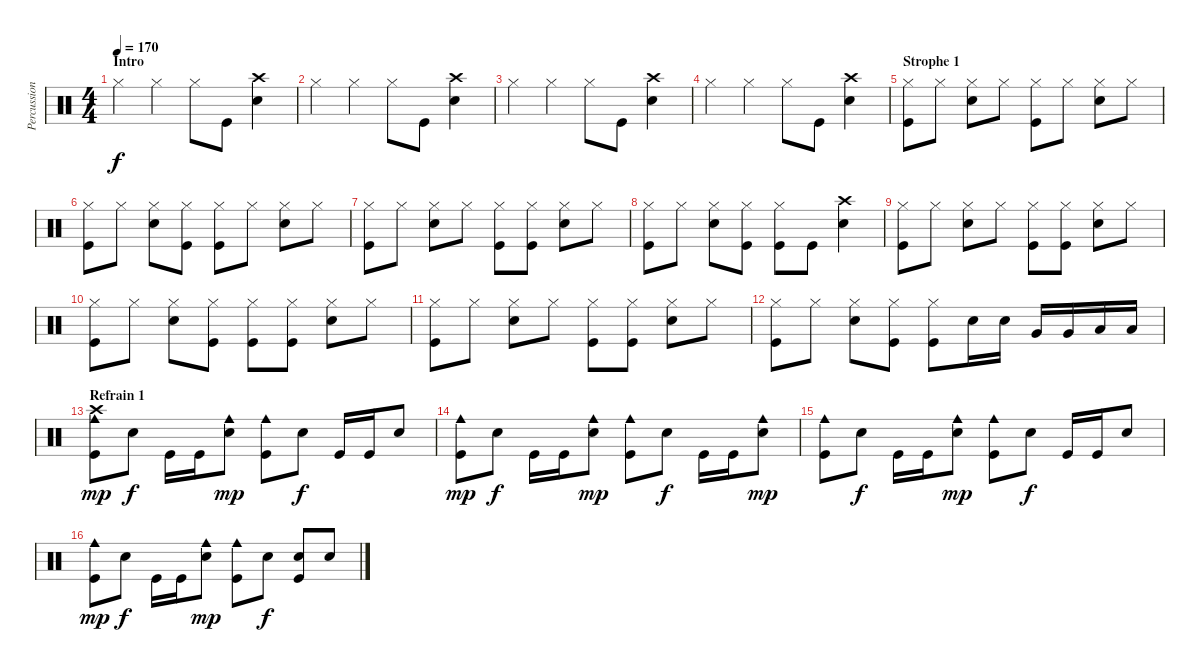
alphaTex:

\track ("Percussion" "Percussion") {instrument percussion}
\staff {score}
\articulation defaults
\ts (4 4)
\section ("" "Intro")
\tempo 170
\clef neutral
\ks c "Hi-Hat (closed)".4{dy f} "Hi-Hat (closed)".4 "Hi-Hat (closed)".8 "Kick (hit)".8
("Crash high (hit)" "Electric Snare (hit)").4 |
"Hi-Hat (closed)".4 "Hi-Hat (closed)".4 "Hi-Hat (closed)".8 "Kick (hit)".8 ("Crash high (hit)" "Electric Snare (hit)").4 |
"Hi-Hat (closed)".4 "Hi-Hat (closed)".4 "Hi-Hat (closed)".8 "Kick (hit)".8 ("Crash high (hit)" "Electric Snare (hit)").4 |
"Hi-Hat (closed)".4 "Hi-Hat (closed)".4 "Hi-Hat (closed)".8 "Kick (hit)".8 ("Crash high (hit)" "Electric Snare (hit)").4 |
\section ("" "Strophe 1")
("Hi-Hat (closed)" "Kick (hit)").8 "Hi-Hat (closed)".8 ("Hi-Hat (closed)" "Electric Snare (hit)").8 "Hi-Hat (closed)".8 ("Hi-Hat (closed)" "Kick (hit)").8 "Hi-Hat (closed)".8 ("Hi-Hat (closed)" "Electric Snare (hit)").8 "Hi-Hat (closed)".8 |
("Hi-Hat (closed)" "Kick (hit)").8 "Hi-Hat (closed)".8 ("Hi-Hat (closed)" "Electric Snare (hit)").8 ("Hi-Hat (closed)" "Kick (hit)").8 ("Hi-Hat (closed)" "Kick (hit)").8 "Hi-Hat (closed)".8 ("Hi-Hat (closed)" "Electric Snare (hit)").8 "Hi-Hat (closed)".8 |
("Hi-Hat (closed)" "Kick (hit)").8 "Hi-Hat (closed)".8 ("Hi-Hat (closed)" "Electric Snare (hit)").8 "Hi-Hat (closed)".8 ("Hi-Hat (closed)" "Kick (hit)").8 ("Hi-Hat (closed)" "Kick (hit)").8 ("Hi-Hat (closed)" "Electric Snare (hit)").8 "Hi-Hat (closed)".8 |
("Hi-Hat (closed)" "Kick (hit)").8 "Hi-Hat (closed)".8 ("Hi-Hat (closed)" "Electric Snare (hit)").8 ("Hi-Hat (closed)" "Kick (hit)").8 ("Hi-Hat (closed)" "Kick (hit)").8 "Kick (hit)".8 ("Crash high (hit)" "Electric Snare (hit)").4 |
("Hi-Hat (closed)" "Kick (hit)").8 "Hi-Hat (closed)".8 ("Hi-Hat (closed)" "Electric Snare (hit)").8 "Hi-Hat (closed)".8 ("Hi-Hat (closed)" "Kick (hit)").8 ("Hi-Hat (closed)" "Kick (hit)").8 ("Hi-Hat (closed)" "Electric Snare (hit)").8 "Hi-Hat (closed)".8 |
("Hi-Hat (closed)" "Kick (hit)").8 "Hi-Hat (closed)".8 ("Hi-Hat (closed)" "Electric Snare (hit)").8 ("Hi-Hat (closed)" "Kick (hit)").8 ("Hi-Hat (closed)" "Kick (hit)").8 ("Hi-Hat (closed)" "Kick (hit)").8 ("Hi-Hat (closed)" "Electric Snare (hit)").8 "Hi-Hat (closed)".8 |
("Hi-Hat (closed)" "Kick (hit)").8 "Hi-Hat (closed)".8 ("Hi-Hat (closed)" "Electric Snare (hit)").8 "Hi-Hat (closed)".8 ("Hi-Hat (closed)" "Kick (hit)").8 ("Hi-Hat (closed)" "Kick (hit)").8 ("Hi-Hat (closed)" "Electric Snare (hit)").8 "Hi-Hat (closed)".8 |
("Hi-Hat (closed)" "Kick (hit)").8 "Hi-Hat (closed)".8 ("Hi-Hat (closed)" "Electric Snare (hit)").8 ("Hi-Hat (closed)" "Kick (hit)").8 ("Hi-Hat (closed)" "Kick (hit)").8 "Electric Snare (hit)".16 "Electric Snare (hit)".16 "Very Low Tom (hit)".16 "Very Low Tom (hit)".16 "Low Floor Tom (hit)".16 "Low Floor Tom (hit)".16 |
\section ("" "Refrain 1")
("Cowbell medium (hit)" "Crash high (hit)" "Kick (hit)").8{dy mp} "Electric Snare (hit)".8{dy f} "Kick (hit)".16 "Kick (hit)".16 ("Cowbell medium (hit)" "Electric Snare (hit)").8{dy mp} ("Cowbell medium (hit)" "Kick (hit)").8 "Electric Snare (hit)".8{dy f} "Kick (hit)".16 "Kick (hit)".16 "Electric Snare (hit)".8 |
("Cowbell medium (hit)" "Kick (hit)").8{dy mp} "Electric Snare (hit)".8{dy f} "Kick (hit)".16 "Kick (hit)".16 ("Cowbell medium (hit)" "Electric Snare (hit)").8{dy mp} ("Cowbell medium (hit)" "Kick (hit)").8 "Electric Snare (hit)".8{dy f} "Kick (hit)".16 "Kick (hit)".16 ("Cowbell medium (hit)" "Electric Snare (hit)").8{dy mp} |
("Cowbell medium (hit)" "Kick (hit)").8 "Electric Snare (hit)".8{dy f} "Kick (hit)".16 "Kick (hit)".16 ("Cowbell medium (hit)" "Electric Snare (hit)").8{dy mp} ("Cowbell medium (hit)" "Kick (hit)").8 "Electric Snare (hit)".8{dy f} "Kick (hit)".16 "Kick (hit)".16 "Electric Snare (hit)".8 |
("Cowbell medium (hit)" "Kick (hit)").8{dy mp} "Electric Snare (hit)".8{dy f} "Kick (hit)".16 "Kick (hit)".16 ("Cowbell medium (hit)" "Electric Snare (hit)").8{dy mp} ("Cowbell medium (hit)" "Kick (hit)").8 "Electric Snare (hit)".8{dy f} ("Electric Snare (hit)" "Kick (hit)").8 "Electric Snare (hit)".8
